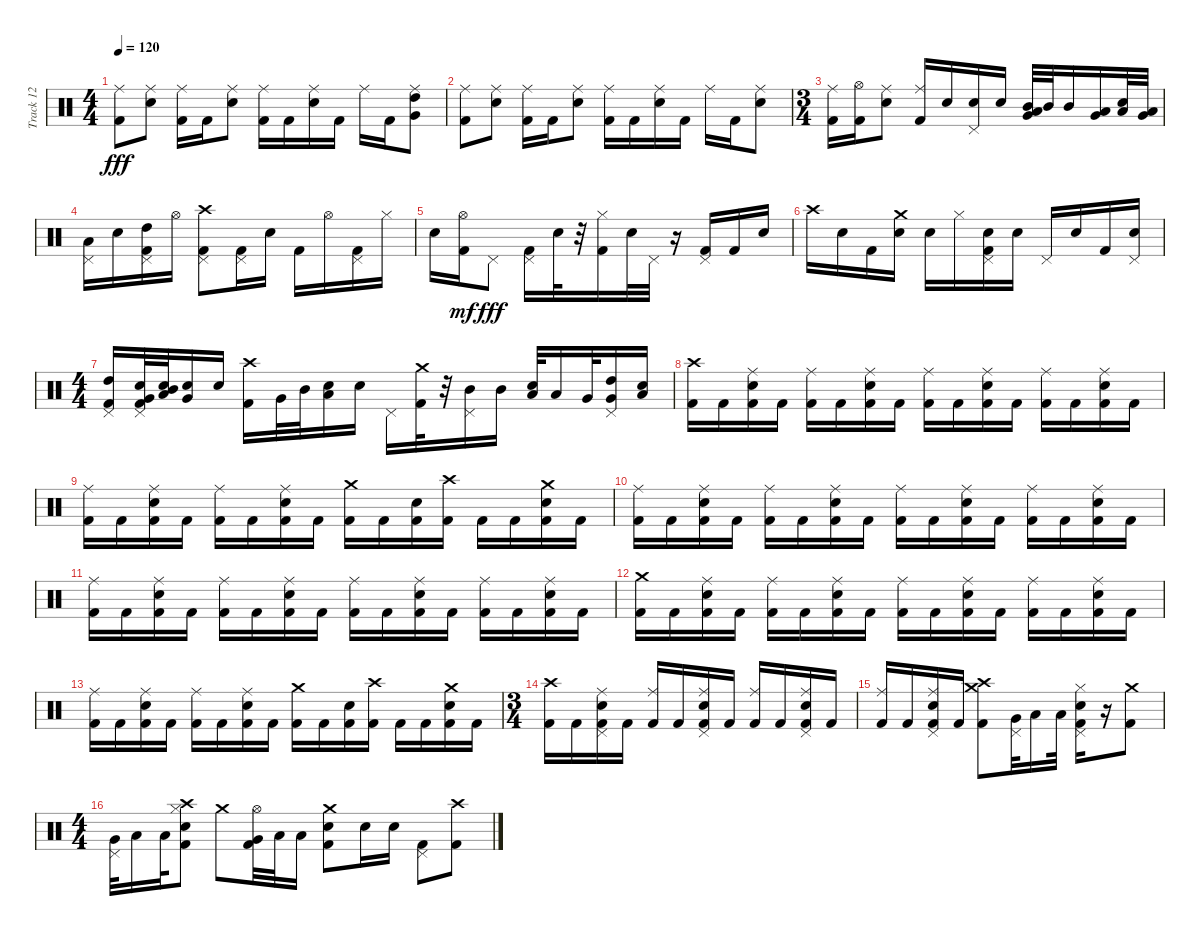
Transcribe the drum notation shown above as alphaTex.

\track ("Track 12" "Track 12") {instrument percussion}
\staff {score}
\articulation defaults
\ts (4 4)
\tempo 120
\clef neutral
\ks c
("Ride (middle)" "Kick (hit) 2").8{dy fff} ("Ride (middle)" "Snare (hit) 2").8 ("Ride (middle)" "Kick (hit) 2").16 "Kick (hit) 2".16 ("Ride (middle)" "Snare (hit) 2").8 ("Ride (middle)" "Kick (hit) 2").16 "Kick (hit) 2".16 ("Ride (middle)" "Snare (hit) 2").16 "Kick (hit) 2".16 "Ride (middle)".16 "Kick (hit) 2".16 ("Ride (middle)" "High Tom (hit)" "Very Low Tom (hit)").8 |
("Ride (middle)" "Kick (hit) 2").8 ("Ride (middle)" "Snare (hit) 2").8 ("Ride (middle)" "Kick (hit) 2").16 "Kick (hit) 2".16 ("Ride (middle)" "Snare (hit) 2").8 ("Ride (middle)" "Kick (hit) 2").16 "Kick (hit) 2".16 ("Ride (middle)" "Snare (hit) 2").16 "Kick (hit) 2".16 "Ride (middle)".16 "Kick (hit) 2".16 ("Ride (middle)" "Snare (hit) 2").8 |
\ts (3 4)
("Ride (middle)" "Kick (hit) 2").16 ("Hi-Hat (open)" "Kick (hit) 2").16 ("Ride (middle)" "Electric Snare (hit)").8 ("Ride (middle)" "Kick (hit) 2").16 "Electric Snare (hit)".16 ("Pedal Hi-Hat (hit)" "Snare (hit) 2").16 "Electric Snare (hit)".16 ("Very Low Tom (hit)" "Low Floor Tom (hit)" "Mid Tom (hit)").32 "Mid Tom (hit)".32 "Mid Tom (hit)".16 ("Very Low Tom (hit)" "Low Tom (hit)").16 ("Electric Snare (hit)" "Low Floor Tom (hit)").32 ("Low Tom (hit)" "Very Low Tom (hit)").32 |
("Pedal Hi-Hat (hit)" "Low Tom (hit)").16 "Electric Snare (hit)".16 ("Pedal Hi-Hat (hit)" "High Tom (hit)" "Kick (hit) 2").16 "Hi-Hat (open)".16 ("Crash high (hit)" "Pedal Hi-Hat (hit)" "Kick (hit) 2").8 ("Pedal Hi-Hat (hit)" "Kick (hit) 2").16 "Snare (hit) 2".16 "Kick (hit) 2".16 "Hi-Hat (open)".16 ("Pedal Hi-Hat (hit)" "Kick (hit) 2").16 "Hi-Hat (closed)".16 |
"Snare (hit) 2".16 ("Hi-Hat (open)" "Kick (hit) 2").16{dy mf} "Pedal Hi-Hat (hit)".8{dy fff} ("Pedal Hi-Hat (hit)" "Kick (hit) 2").16 "Snare (hit) 2".32 r.32 ("Hi-Hat (closed)" "Kick (hit) 2").16 "Snare (hit) 2".32 "Pedal Hi-Hat (hit)".32 r.16 ("Pedal Hi-Hat (hit)" "Kick (hit) 2").16 "Kick (hit) 2".16 "Electric Snare (hit)".16 |
"Crash high (hit)".16 "Snare (hit) 2".16 "Kick (hit) 2".16 ("Crash medium (hit)" "Snare (hit) 2").16 "Snare (hit) 2".16 "Hi-Hat (closed)".16 ("Pedal Hi-Hat (hit)" "Snare (hit) 2" "Kick (hit) 2").16 "Electric Snare (hit)".16 "Pedal Hi-Hat (hit)".16 "Electric Snare (hit)".16 "Kick (hit) 2".16 ("Pedal Hi-Hat (hit)" "Snare (hit) 2").16 |
\ts (4 4)
("Pedal Hi-Hat (hit)" "High Tom (hit)" "Kick (hit) 2").16 ("Pedal Hi-Hat (hit)" "Very Low Tom (hit)" "Snare (hit) 2" "Kick (hit) 2").32 ("Low Floor Tom (hit)" "Mid Tom (hit)" "Snare (hit) 2").32 ("Very Low Tom (hit)" "Electric Snare (hit)").16 "Electric Snare (hit)".16 ("Crash high (hit)" "Kick (hit) 2").16 "Very Low Tom (hit)".32 "Mid Tom (hit)".32 ("Snare (hit) 2" "Low Floor Tom (hit)").16 "Electric Snare (hit)".16 "Pedal Hi-Hat (hit)".16 ("Crash medium (hit)" "Kick (hit) 2").32 r.32 ("Pedal Hi-Hat (hit)" "Mid Tom (hit)").16 "Mid Tom (hit)".16 ("Snare (hit) 2" "Low Tom (hit)").32 "Low Tom (hit)".16 "Very Low Tom (hit)".32 ("Pedal Hi-Hat (hit)" "High Tom (hit)" "Very Low Tom (hit)").16 ("Snare (hit) 2" "Low Floor Tom (hit)").16 |
("Crash high (hit)" "Kick (hit) 2").16 "Kick (hit) 2".16 ("Ride (middle)" "Snare (hit) 2" "Kick (hit) 2").16 "Kick (hit) 2".16 ("Ride (middle)" "Kick (hit) 2").16 "Kick (hit) 2".16 ("Ride (middle)" "Snare (hit) 2" "Kick (hit) 2").16 "Kick (hit) 2".16 ("Ride (middle)" "Kick (hit) 2").16 "Kick (hit) 2".16 ("Ride (middle)" "Snare (hit) 2" "Kick (hit) 2").16 "Kick (hit) 2".16 ("Ride (middle)" "Kick (hit) 2").16 "Kick (hit) 2".16 ("Ride (middle)" "Snare (hit) 2" "Kick (hit) 2").16 "Kick (hit) 2".16 |
("Ride (middle)" "Kick (hit) 2").16 "Kick (hit) 2".16 ("Ride (middle)" "Snare (hit) 2" "Kick (hit) 2").16 "Kick (hit) 2".16 ("Ride (middle)" "Kick (hit) 2").16 "Kick (hit) 2".16 ("Ride (middle)" "Snare (hit) 2" "Kick (hit) 2").16 "Kick (hit) 2".16 ("Crash medium (hit)" "Kick (hit) 2").16 "Kick (hit) 2".16 ("Snare (hit) 2" "Kick (hit) 2").16 ("Crash high (hit)" "Kick (hit) 2").16 "Kick (hit) 2".16 "Kick (hit) 2".16 ("Crash medium (hit)" "Snare (hit) 2" "Kick (hit) 2").16 "Kick (hit) 2".16 |
("Ride (middle)" "Kick (hit) 2").16 "Kick (hit) 2".16 ("Ride (middle)" "Electric Snare (hit)" "Kick (hit) 2").16 "Kick (hit) 2".16 ("Ride (middle)" "Kick (hit) 2").16 "Kick (hit) 2".16 ("Ride (middle)" "Snare (hit) 2" "Kick (hit) 2").16 "Kick (hit) 2".16 ("Ride (middle)" "Kick (hit) 2").16 "Kick (hit) 2".16 ("Ride (middle)" "Electric Snare (hit)" "Kick (hit) 2").16 "Kick (hit) 2".16 ("Ride (middle)" "Kick (hit) 2").16 "Kick (hit) 2".16 ("Ride (middle)" "Snare (hit) 2" "Kick (hit) 2").16 "Kick (hit) 2".16 |
("Ride (middle)" "Kick (hit) 2").16 "Kick (hit) 2".16 ("Ride (middle)" "Electric Snare (hit)" "Kick (hit) 2").16 "Kick (hit) 2".16 ("Ride (middle)" "Kick (hit) 2").16 "Kick (hit) 2".16 ("Ride (middle)" "Electric Snare (hit)" "Kick (hit) 2").16 "Kick (hit) 2".16 ("Ride (middle)" "Kick (hit) 2").16 "Kick (hit) 2".16 ("Ride (middle)" "Electric Snare (hit)" "Kick (hit) 2").16 "Kick (hit) 2".16 ("Ride (middle)" "Kick (hit) 2").16 "Kick (hit) 2".16 ("Ride (middle)" "Snare (hit) 2" "Kick (hit) 2").16 "Kick (hit) 2".16 |
("Crash medium (hit)" "Kick (hit) 2").16 "Kick (hit) 2".16 ("Ride (middle)" "Snare (hit) 2" "Kick (hit) 2").16 "Kick (hit) 2".16 ("Ride (middle)" "Kick (hit) 2").16 "Kick (hit) 2".16 ("Ride (middle)" "Electric Snare (hit)" "Kick (hit) 2").16 "Kick (hit) 2".16 ("Ride (middle)" "Kick (hit) 2").16 "Kick (hit) 2".16 ("Ride (middle)" "Snare (hit) 2" "Kick (hit) 2").16 "Kick (hit) 2".16 ("Ride (middle)" "Kick (hit) 2").16 "Kick (hit) 2".16 ("Ride (middle)" "Electric Snare (hit)" "Kick (hit) 2").16 "Kick (hit) 2".16 |
("Ride (middle)" "Kick (hit) 2").16 "Kick (hit) 2".16 ("Ride (middle)" "Snare (hit) 2" "Kick (hit) 2").16 "Kick (hit) 2".16 ("Ride (middle)" "Kick (hit) 2").16 "Kick (hit) 2".16 ("Ride (middle)" "Electric Snare (hit)" "Kick (hit) 2").16 "Kick (hit) 2".16 ("Crash medium (hit)" "Kick (hit) 2").16 "Kick (hit) 2".16 ("Electric Snare (hit)" "Kick (hit) 2").16 ("Crash high (hit)" "Kick (hit) 2").16 "Kick (hit) 2".16 "Kick (hit) 2".16 ("Crash medium (hit)" "Electric Snare (hit)" "Kick (hit) 2").16 "Kick (hit) 2".16 |
\ts (3 4)
("Crash high (hit)" "Kick (hit) 2").16 "Kick (hit) 2".16 ("Ride (middle)" "Pedal Hi-Hat (hit)" "Snare (hit) 2" "Kick (hit) 2").16 "Kick (hit) 2".16 ("Ride (middle)" "Kick (hit) 2").16 "Kick (hit) 2".16 ("Ride (middle)" "Pedal Hi-Hat (hit)" "Snare (hit) 2" "Kick (hit) 2").16 "Kick (hit) 2".16 ("Ride (middle)" "Kick (hit) 2").16 "Kick (hit) 2".16 ("Ride (middle)" "Pedal Hi-Hat (hit)" "Electric Snare (hit)" "Kick (hit) 2").16 "Kick (hit) 2".16 |
("Ride (middle)" "Kick (hit) 2").16 "Kick (hit) 2".16 ("Ride (middle)" "Pedal Hi-Hat (hit)" "Snare (hit) 2" "Kick (hit) 2").16 "Kick (hit) 2".16 ("Crash medium (hit)" "Crash high (hit)" "Kick (hit) 2").8 ("Pedal Hi-Hat (hit)" "Very Low Tom (hit)").32 "Low Tom (hit)".16 "Low Floor Tom (hit)".32 ("Hi-Hat (closed)" "Pedal Hi-Hat (hit)" "Electric Snare (hit)" "Kick (hit) 2").16 r.16 ("Crash medium (hit)" "Kick (hit) 2").8 |
\ts (4 4)
("Pedal Hi-Hat (hit)" "Very Low Tom (hit)").32 "Low Tom (hit)".16 "Low Floor Tom (hit)".32 ("Crash high (hit)" "Hi-Hat (closed)" "Electric Snare (hit)" "Kick (hit) 2").8 "Crash medium (hit)".8 ("Hi-Hat (open)" "Very Low Tom (hit)" "Kick (hit) 2").32 "Low Tom (hit)".32 "Low Floor Tom (hit)".16 ("Crash medium (hit)" "Electric Snare (hit)" "Kick (hit) 2").8 "Snare (hit) 2".16 "Electric Snare (hit)".16 ("Pedal Hi-Hat (hit)" "Kick (hit) 2").8 ("Crash high (hit)" "Kick (hit) 2").8
